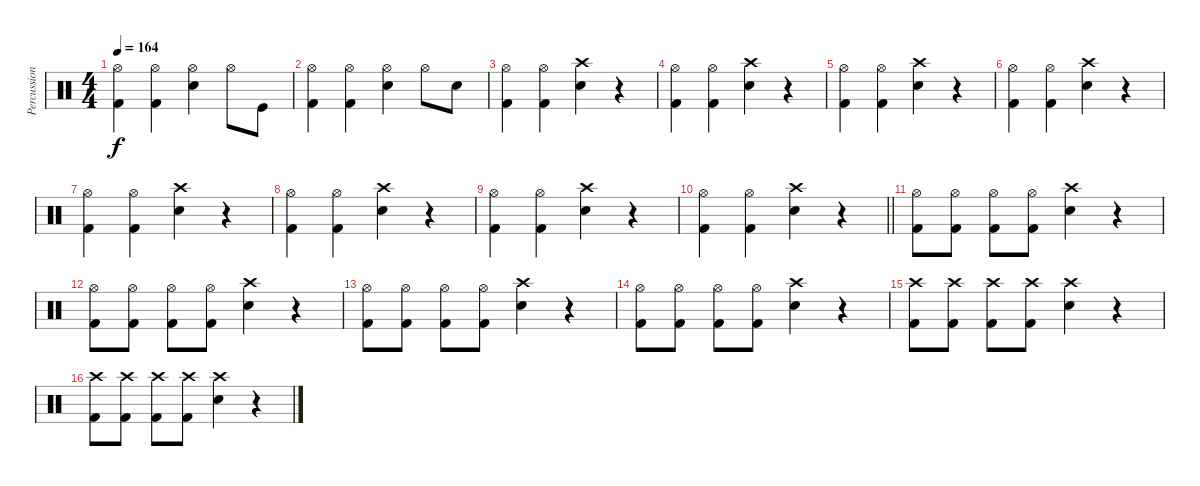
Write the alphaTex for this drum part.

\track ("Percussion" "Percussion") {instrument percussion}
\staff {score}
\articulation defaults
\ts (4 4)
\tempo 164
\clef neutral
\ks c
("Hi-Hat (open)" "Kick (hit) 2").4{dy f} ("Hi-Hat (open)" "Kick (hit) 2").4 ("Hi-Hat (open)" "Electric Snare (hit)").4 "Hi-Hat (open)".8 "Kick (hit)".8 |
("Hi-Hat (open)" "Kick (hit) 2").4 ("Hi-Hat (open)" "Kick (hit) 2").4 ("Hi-Hat (open)" "Electric Snare (hit)").4 "Hi-Hat (open)".8 "Snare (hit) 2".8 |
("Hi-Hat (open)" "Kick (hit) 2").4 ("Hi-Hat (open)" "Kick (hit) 2").4 ("Crash high (hit)" "Electric Snare (hit)").4 r.4 |
("Hi-Hat (open)" "Kick (hit) 2").4 ("Hi-Hat (open)" "Kick (hit) 2").4 ("Crash high (hit)" "Electric Snare (hit)").4 r.4 |
("Hi-Hat (open)" "Kick (hit) 2").4 ("Hi-Hat (open)" "Kick (hit) 2").4 ("Crash high (hit)" "Electric Snare (hit)").4 r.4 |
("Hi-Hat (open)" "Kick (hit) 2").4 ("Hi-Hat (open)" "Kick (hit) 2").4 ("Crash high (hit)" "Electric Snare (hit)").4 r.4 |
("Hi-Hat (open)" "Kick (hit) 2").4 ("Hi-Hat (open)" "Kick (hit) 2").4 ("Crash high (hit)" "Electric Snare (hit)").4 r.4 |
("Hi-Hat (open)" "Kick (hit) 2").4 ("Hi-Hat (open)" "Kick (hit) 2").4 ("Crash high (hit)" "Electric Snare (hit)").4 r.4 |
("Hi-Hat (open)" "Kick (hit) 2").4 ("Hi-Hat (open)" "Kick (hit) 2").4 ("Crash high (hit)" "Electric Snare (hit)").4 r.4 |
\barLineRight lightlight
("Hi-Hat (open)" "Kick (hit) 2").4 ("Hi-Hat (open)" "Kick (hit) 2").4 ("Crash high (hit)" "Electric Snare (hit)").4 r.4 |
\section ("" "")
("Hi-Hat (open)" "Kick (hit) 2").8 ("Hi-Hat (open)" "Kick (hit) 2").8 ("Hi-Hat (open)" "Kick (hit) 2").8 ("Hi-Hat (open)" "Kick (hit) 2").8 ("Crash high (hit)" "Electric Snare (hit)").4 r.4 |
("Hi-Hat (open)" "Kick (hit) 2").8 ("Hi-Hat (open)" "Kick (hit) 2").8 ("Hi-Hat (open)" "Kick (hit) 2").8 ("Hi-Hat (open)" "Kick (hit) 2").8 ("Crash high (hit)" "Electric Snare (hit)").4 r.4 |
("Hi-Hat (open)" "Kick (hit) 2").8 ("Hi-Hat (open)" "Kick (hit) 2").8 ("Hi-Hat (open)" "Kick (hit) 2").8 ("Hi-Hat (open)" "Kick (hit) 2").8 ("Crash high (hit)" "Electric Snare (hit)").4 r.4 |
("Hi-Hat (open)" "Kick (hit) 2").8 ("Hi-Hat (open)" "Kick (hit) 2").8 ("Hi-Hat (open)" "Kick (hit) 2").8 ("Hi-Hat (open)" "Kick (hit) 2").8 ("Crash high (hit)" "Electric Snare (hit)").4 r.4 |
("Crash high (hit)" "Kick (hit) 2").8 ("Crash high (hit)" "Kick (hit) 2").8 ("Crash high (hit)" "Kick (hit) 2").8 ("Crash high (hit)" "Kick (hit) 2").8 ("Crash high (hit)" "Snare (hit) 2").4 r.4 |
("Crash high (hit)" "Kick (hit) 2").8 ("Crash high (hit)" "Kick (hit) 2").8 ("Crash high (hit)" "Kick (hit) 2").8 ("Crash high (hit)" "Kick (hit) 2").8 ("Crash high (hit)" "Snare (hit) 2").4 r.4
